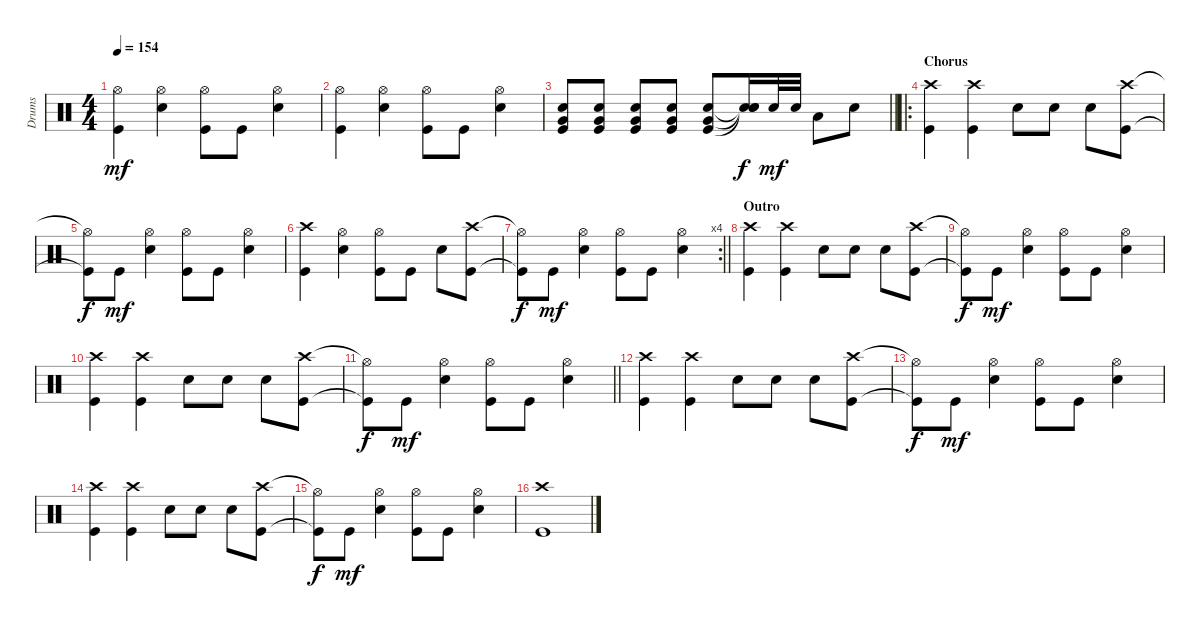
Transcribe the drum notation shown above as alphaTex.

\track ("Drums" "Drums") {instrument percussion}
\staff {score}
\articulation defaults
\ts (4 4)
\tempo 154
\clef neutral
\ks c
("Hi-Hat (open)" "Kick (hit)").4{dy mf} ("Hi-Hat (open)" "Electric Snare (hit)").4 ("Hi-Hat (open)" "Kick (hit)").8 "Kick (hit)".8 ("Hi-Hat (open)" "Electric Snare (hit)").4 |
("Hi-Hat (open)" "Kick (hit)").4 ("Hi-Hat (open)" "Electric Snare (hit)").4 ("Hi-Hat (open)" "Kick (hit)").8 "Kick (hit)".8 ("Hi-Hat (open)" "Electric Snare (hit)").4 |
\barLineRight lightlight
("Electric Snare (hit)" "Very Low Tom (hit)" "Kick (hit)").8 ("Electric Snare (hit)" "Very Low Tom (hit)" "Kick (hit)").8 ("Electric Snare (hit)" "Very Low Tom (hit)" "Kick (hit)").8 ("Electric Snare (hit)" "Very Low Tom (hit)" "Kick (hit)").8 ("Electric Snare (hit)" "Very Low Tom (hit)" "Kick (hit)").8 ("Snare (hit)"{t} "Snare (hit)"{t} "Snare (hit)"{t}).16{dy f} "Electric Snare (hit)".32{dy mf} "Electric Snare (hit)".32 "Low Tom (hit)".8 "Electric Snare (hit)".8 |
\ro
\section ("" "Chorus")
("Crash high (hit)" "Kick (hit)").4 ("Crash high (hit)" "Kick (hit)").4 "Electric Snare (hit)".8 "Electric Snare (hit)".8 "Electric Snare (hit)".8 ("Crash high (hit)" "Kick (hit)").8 |
("Hi-Hat (open)"{t} "Kick (hit)"{t}).8{dy f} "Kick (hit)".8{dy mf} ("Hi-Hat (open)" "Electric Snare (hit)").4 ("Hi-Hat (open)" "Kick (hit)").8 "Kick (hit)".8 ("Hi-Hat (open)" "Electric Snare (hit)").4 |
("Crash high (hit)" "Kick (hit)").4 ("Hi-Hat (open)" "Electric Snare (hit)").4 ("Hi-Hat (open)" "Kick (hit)").8 "Kick (hit)".8 "Electric Snare (hit)".8 ("Crash high (hit)" "Kick (hit)").8 |
\rc 4
\barLineRight lightlight
("Hi-Hat (open)"{t} "Kick (hit)"{t}).8{dy f} "Kick (hit)".8{dy mf} ("Hi-Hat (open)" "Electric Snare (hit)").4 ("Hi-Hat (open)" "Kick (hit)").8 "Kick (hit)".8 ("Hi-Hat (open)" "Electric Snare (hit)").4 |
\section ("" "Outro")
("Crash high (hit)" "Kick (hit)").4 ("Crash high (hit)" "Kick (hit)").4 "Electric Snare (hit)".8 "Electric Snare (hit)".8 "Electric Snare (hit)".8 ("Crash high (hit)" "Kick (hit)").8 |
("Hi-Hat (open)"{t} "Kick (hit)"{t}).8{dy f} "Kick (hit)".8{dy mf} ("Hi-Hat (open)" "Electric Snare (hit)").4 ("Hi-Hat (open)" "Kick (hit)").8 "Kick (hit)".8 ("Hi-Hat (open)" "Electric Snare (hit)").4 |
("Crash high (hit)" "Kick (hit)").4 ("Crash high (hit)" "Kick (hit)").4 "Electric Snare (hit)".8 "Electric Snare (hit)".8 "Electric Snare (hit)".8 ("Crash high (hit)" "Kick (hit)").8 |
\barLineRight lightlight
("Hi-Hat (open)"{t} "Kick (hit)"{t}).8{dy f} "Kick (hit)".8{dy mf} ("Hi-Hat (open)" "Electric Snare (hit)").4 ("Hi-Hat (open)" "Kick (hit)").8 "Kick (hit)".8 ("Hi-Hat (open)" "Electric Snare (hit)").4 |
("Crash high (hit)" "Kick (hit)").4 ("Crash high (hit)" "Kick (hit)").4 "Electric Snare (hit)".8 "Electric Snare (hit)".8 "Electric Snare (hit)".8 ("Crash high (hit)" "Kick (hit)").8 |
("Hi-Hat (open)"{t} "Kick (hit)"{t}).8{dy f} "Kick (hit)".8{dy mf} ("Hi-Hat (open)" "Electric Snare (hit)").4 ("Hi-Hat (open)" "Kick (hit)").8 "Kick (hit)".8 ("Hi-Hat (open)" "Electric Snare (hit)").4 |
("Crash high (hit)" "Kick (hit)").4 ("Crash high (hit)" "Kick (hit)").4 "Electric Snare (hit)".8 "Electric Snare (hit)".8 "Electric Snare (hit)".8 ("Crash high (hit)" "Kick (hit)").8 |
("Hi-Hat (open)"{t} "Kick (hit)"{t}).8{dy f} "Kick (hit)".8{dy mf} ("Hi-Hat (open)" "Electric Snare (hit)").4 ("Hi-Hat (open)" "Kick (hit)").8 "Kick (hit)".8 ("Hi-Hat (open)" "Electric Snare (hit)").4 |
("Crash high (hit)" "Kick (hit)").1
